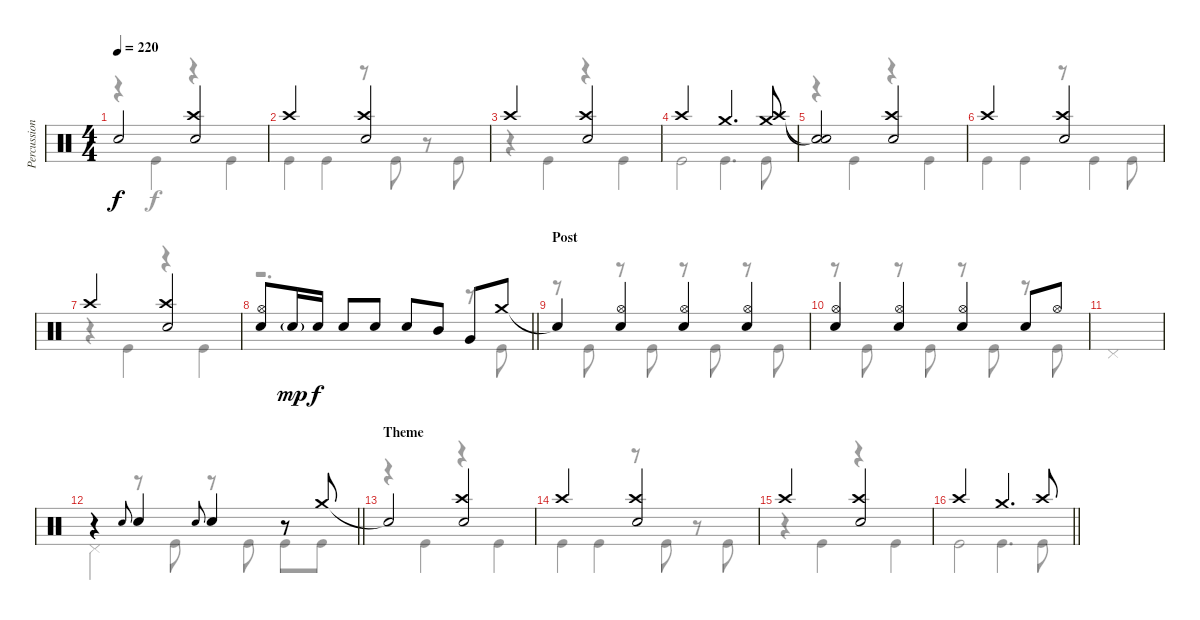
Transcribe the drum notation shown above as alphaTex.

\track ("Percussion" "Percussion") {instrument percussion}
\staff {score}
\articulation defaults
\voice
\ts (4 4)
\tempo 220
\clef neutral
\ks c "Snare (hit)"{t}.2{dy f}
("Crash high (hit)" "Electric Snare (hit)").2 |
"Crash high (hit)".2 ("Crash high (hit)" "Electric Snare (hit)").2 |
"Crash high (hit)".2 ("Crash high (hit)" "Electric Snare (hit)").2 |
"Crash high (hit)".2 "Crash medium (hit)".4{d} ("Crash medium (hit)" "Crash high (hit)").8 |
("Snare (hit)"{t} "Snare (hit)"{t}).2 ("Crash high (hit)" "Electric Snare (hit)").2 |
"Crash high (hit)".2 ("Crash high (hit)" "Electric Snare (hit)").2 |
"Crash high (hit)".2 ("Crash high (hit)" "Electric Snare (hit)").2 |
\barLineRight lightlight
("Hi-Hat (open)" "Electric Snare (hit)").8 "Electric Snare (hit)"{g}.16{dy mp} "Electric Snare (hit)".16{dy f} "Electric Snare (hit)".8 "Electric Snare (hit)".8 "Electric Snare (hit)".8 "Mid Tom (hit)".8 "Very Low Tom (hit)".8 "Crash medium (hit)".8 |
\section ("" "Post")
"Snare (hit)"{t}.4 ("Hi-Hat (open)" "Electric Snare (hit)").4 ("Hi-Hat (open)" "Electric Snare (hit)").4 ("Hi-Hat (open)" "Electric Snare (hit)").4 |
("Hi-Hat (open)" "Electric Snare (hit)").4 ("Hi-Hat (open)" "Electric Snare (hit)").4 ("Hi-Hat (open)" "Electric Snare (hit)").4 "Electric Snare (hit)".8 "Hi-Hat (open)".8 |
|
\barLineRight lightlight
r.4 "Electric Snare (hit)".8{gr onbeat} "Electric Snare (hit)".4 "Electric Snare (hit)".8{gr onbeat} "Electric Snare (hit)".4 r.8 "Crash medium (hit)".8 |
\section ("" "Theme")
"Snare (hit)"{t}.2 ("Crash high (hit)" "Electric Snare (hit)").2 |
"Crash high (hit)".2 ("Crash high (hit)" "Electric Snare (hit)").2 |
"Crash high (hit)".2 ("Crash high (hit)" "Electric Snare (hit)").2 |
\barLineRight lightlight "Crash high (hit)".2 "Crash medium (hit)".4{d} "Crash high (hit)".8
\voice
\clef neutral
\ottava regular
\simile none
\ks c
r.4{dy f} "Kick (hit)".4 r.4 "Kick (hit)".4 |
"Kick (hit)".4 "Kick (hit)".4 r.8 "Kick (hit)".8 r.8 "Kick (hit)".8 |
r.4 "Kick (hit)".4 r.4 "Kick (hit)".4 |
"Kick (hit)".2 "Kick (hit)".4{d} "Kick (hit)".8 |
r.4 "Kick (hit)".4 r.4 "Kick (hit)".4 |
"Kick (hit)".4 "Kick (hit)".4 r.8 "Kick (hit)".4 "Kick (hit)".8 |
r.4 "Kick (hit)".4 r.4 "Kick (hit)".4 |
\barLineRight lightlight
r.2{d} r.8 "Kick (hit)".8 |
r.8 "Kick (hit)".8 r.8 "Kick (hit)".8 r.8 "Kick (hit)".8 r.8 "Kick (hit)".8 |
r.8 "Kick (hit)".8 r.8 "Kick (hit)".8 r.8 "Kick (hit)".8 r.8 "Kick (hit)".8 |
"Pedal Hi-Hat (hit)".1 |
\barLineRight lightlight "Pedal Hi-Hat (hit)".4
r.8 "Kick (hit)".8 r.8 "Kick (hit)".8 "Kick (hit)".8 "Kick (hit)".8 |
r.4 "Kick (hit)".4 r.4 "Kick (hit)".4 |
"Kick (hit)".4 "Kick (hit)".4 r.8 "Kick (hit)".8 r.8 "Kick (hit)".8 |
r.4 "Kick (hit)".4 r.4 "Kick (hit)".4 |
\barLineRight lightlight "Kick (hit)".2 "Kick (hit)".4{d} "Kick (hit)".8
